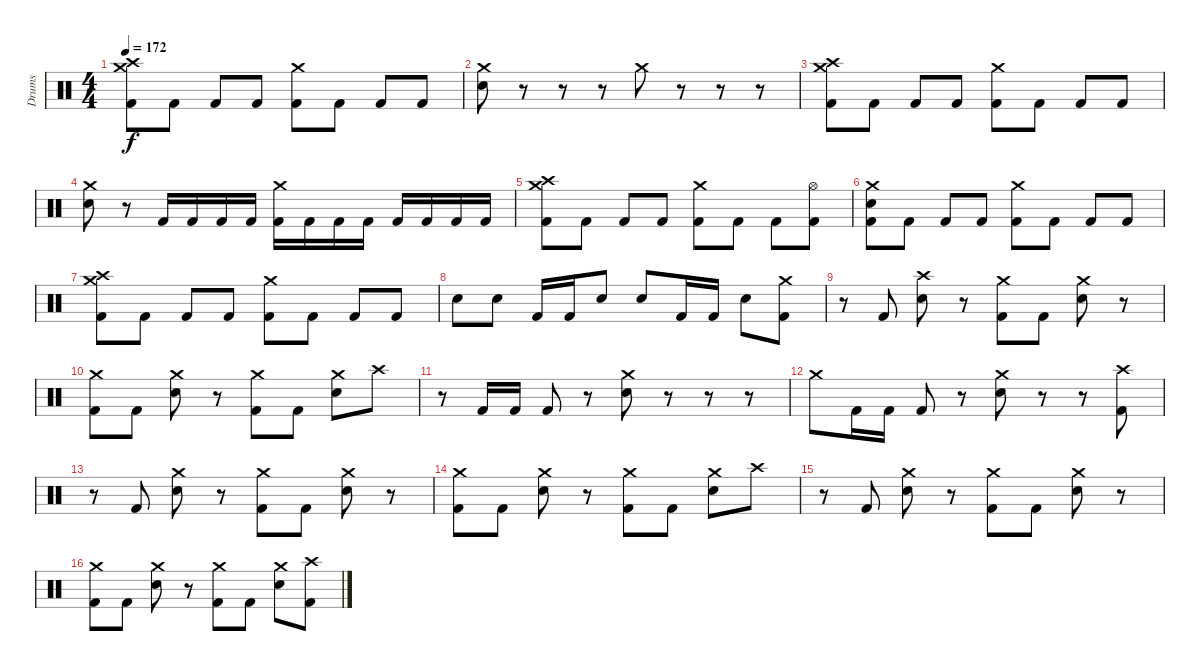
\track ("Drums" "Drums") {instrument percussion}
\staff {score}
\articulation defaults
\ts (4 4)
\tempo 172
\clef neutral
\ks c
("Crash medium (hit)" "Crash high (hit)" "Kick (hit) 2").8{dy f} "Kick (hit) 2".8 "Kick (hit) 2".8 "Kick (hit) 2".8 ("Crash medium (hit)" "Kick (hit) 2").8 "Kick (hit) 2".8 "Kick (hit) 2".8 "Kick (hit) 2".8 |
("Crash medium (hit)" "Electric Snare (hit)").8 r.8 r.8 r.8 "Crash medium (hit)".8 r.8 r.8 r.8 |
("Crash medium (hit)" "Crash high (hit)" "Kick (hit) 2").8 "Kick (hit) 2".8 "Kick (hit) 2".8 "Kick (hit) 2".8 ("Crash medium (hit)" "Kick (hit) 2").8 "Kick (hit) 2".8 "Kick (hit) 2".8 "Kick (hit) 2".8 |
("Crash medium (hit)" "Electric Snare (hit)").8 r.8 "Kick (hit) 2".16 "Kick (hit) 2".16 "Kick (hit) 2".16 "Kick (hit) 2".16 ("Crash medium (hit)" "Kick (hit) 2").16 "Kick (hit) 2".16 "Kick (hit) 2".16 "Kick (hit) 2".16 "Kick (hit) 2".16 "Kick (hit) 2".16 "Kick (hit) 2".16 "Kick (hit) 2".16 |
("Crash medium (hit)" "Crash high (hit)" "Kick (hit) 2").8 "Kick (hit) 2".8 "Kick (hit) 2".8 "Kick (hit) 2".8 ("Crash medium (hit)" "Kick (hit) 2").8 "Kick (hit) 2".8 "Kick (hit) 2".8 ("Hi-Hat (open)" "Kick (hit) 2").8 |
("Crash medium (hit)" "Electric Snare (hit)" "Kick (hit) 2").8 "Kick (hit) 2".8 "Kick (hit) 2".8 "Kick (hit) 2".8 ("Crash medium (hit)" "Kick (hit) 2").8 "Kick (hit) 2".8 "Kick (hit) 2".8 "Kick (hit) 2".8 |
("Crash medium (hit)" "Crash high (hit)" "Kick (hit) 2").8 "Kick (hit) 2".8 "Kick (hit) 2".8 "Kick (hit) 2".8 ("Crash medium (hit)" "Kick (hit) 2").8 "Kick (hit) 2".8 "Kick (hit) 2".8 "Kick (hit) 2".8 |
"Electric Snare (hit)".8 "Electric Snare (hit)".8 "Kick (hit) 2".16 "Kick (hit) 2".16 "Electric Snare (hit)".8 "Electric Snare (hit)".8 "Kick (hit) 2".16 "Kick (hit) 2".16 "Electric Snare (hit)".8 ("Crash medium (hit)" "Kick (hit) 2").8 |
r.8 "Kick (hit) 2".8 ("Crash high (hit)" "Electric Snare (hit)").8 r.8 ("Crash medium (hit)" "Kick (hit) 2").8 "Kick (hit) 2".8 ("Crash medium (hit)" "Electric Snare (hit)").8 r.8 |
("Crash medium (hit)" "Kick (hit) 2").8 "Kick (hit) 2".8 ("Crash medium (hit)" "Electric Snare (hit)").8 r.8 ("Crash medium (hit)" "Kick (hit) 2").8 "Kick (hit) 2".8 ("Crash medium (hit)" "Electric Snare (hit)").8 "Crash high (hit)".8 |
r.8 "Kick (hit) 2".16 "Kick (hit) 2".16 "Kick (hit) 2".8 r.8 ("Crash medium (hit)" "Electric Snare (hit)").8 r.8 r.8 r.8 |
"Crash medium (hit)".8 "Kick (hit) 2".16 "Kick (hit) 2".16 "Kick (hit) 2".8 r.8 ("Crash medium (hit)" "Electric Snare (hit)").8 r.8 r.8 ("Crash high (hit)" "Kick (hit) 2").8 |
r.8 "Kick (hit) 2".8 ("Crash medium (hit)" "Electric Snare (hit)").8 r.8 ("Crash medium (hit)" "Kick (hit) 2").8 "Kick (hit) 2".8 ("Crash medium (hit)" "Electric Snare (hit)").8 r.8 |
("Crash medium (hit)" "Kick (hit) 2").8 "Kick (hit) 2".8 ("Crash medium (hit)" "Electric Snare (hit)").8 r.8 ("Crash medium (hit)" "Kick (hit) 2").8 "Kick (hit) 2".8 ("Crash medium (hit)" "Electric Snare (hit)").8 "Crash high (hit)".8 |
r.8 "Kick (hit) 2".8 ("Crash medium (hit)" "Electric Snare (hit)").8 r.8 ("Crash medium (hit)" "Kick (hit) 2").8 "Kick (hit) 2".8 ("Crash medium (hit)" "Electric Snare (hit)").8 r.8 |
("Crash medium (hit)" "Kick (hit) 2").8 "Kick (hit) 2".8 ("Crash medium (hit)" "Electric Snare (hit)").8 r.8 ("Crash medium (hit)" "Kick (hit) 2").8 "Kick (hit) 2".8 ("Crash medium (hit)" "Electric Snare (hit)").8 ("Crash high (hit)" "Kick (hit) 2").8
